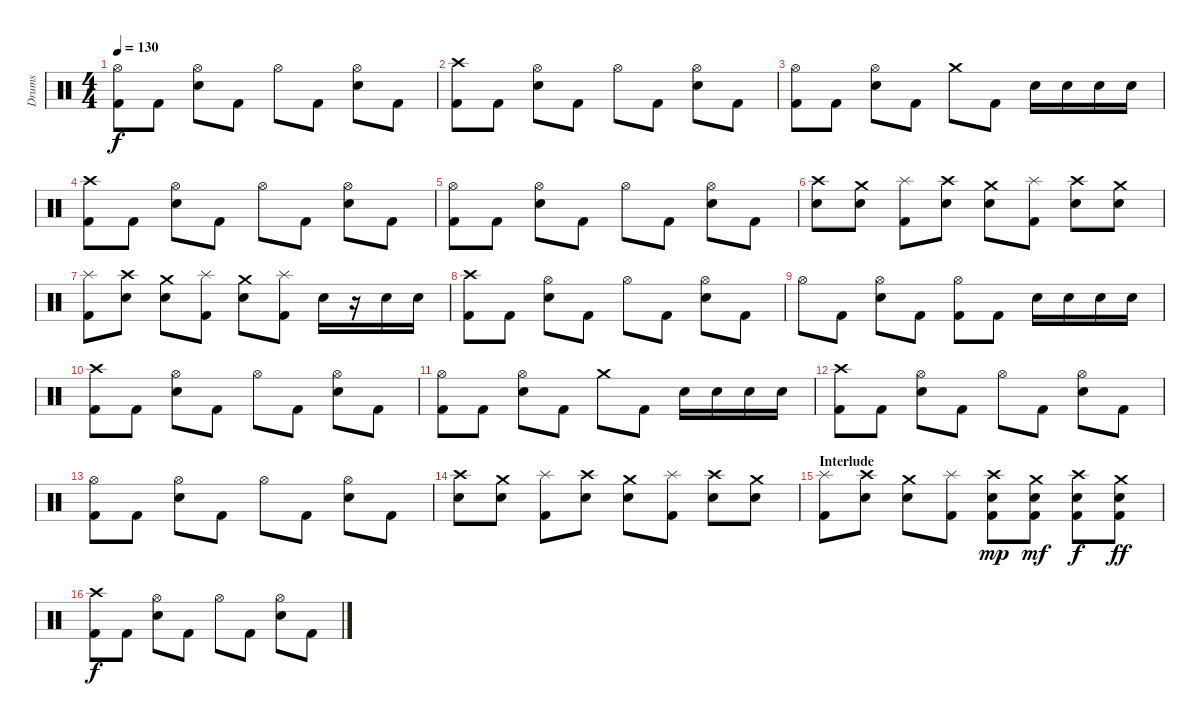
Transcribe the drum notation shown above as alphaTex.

\track ("Drums" "Drums") {instrument percussion}
\staff {score}
\articulation defaults
\ts (4 4)
\tempo 130
\clef neutral
\ks c
("Hi-Hat (open)" "Kick (hit) 2").8{dy f} "Kick (hit) 2".8 ("Hi-Hat (open)" "Electric Snare (hit)").8 "Kick (hit) 2".8 "Hi-Hat (open)".8 "Kick (hit) 2".8 ("Hi-Hat (open)" "Electric Snare (hit)").8 "Kick (hit) 2".8 |
("Crash high (hit)" "Kick (hit) 2").8 "Kick (hit) 2".8 ("Hi-Hat (open)" "Electric Snare (hit)").8 "Kick (hit) 2".8 "Hi-Hat (open)".8 "Kick (hit) 2".8 ("Hi-Hat (open)" "Electric Snare (hit)").8 "Kick (hit) 2".8 |
("Hi-Hat (open)" "Kick (hit) 2").8 "Kick (hit) 2".8 ("Hi-Hat (open)" "Electric Snare (hit)").8 "Kick (hit) 2".8 "Crash medium (hit)".8 "Kick (hit) 2".8 "Electric Snare (hit)".16 "Electric Snare (hit)".16 "Electric Snare (hit)".16 "Electric Snare (hit)".16 |
("Crash high (hit)" "Kick (hit) 2").8 "Kick (hit) 2".8 ("Hi-Hat (open)" "Electric Snare (hit)").8 "Kick (hit) 2".8 "Hi-Hat (open)".8 "Kick (hit) 2".8 ("Hi-Hat (open)" "Electric Snare (hit)").8 "Kick (hit) 2".8 |
("Hi-Hat (open)" "Kick (hit) 2").8 "Kick (hit) 2".8 ("Hi-Hat (open)" "Electric Snare (hit)").8 "Kick (hit) 2".8 "Hi-Hat (open)".8 "Kick (hit) 2".8 ("Hi-Hat (open)" "Electric Snare (hit)").8 "Kick (hit) 2".8 |
("Crash high (hit)" "Electric Snare (hit)").8 ("Crash medium (hit)" "Electric Snare (hit)").8 ("Splash (hit)" "Kick (hit) 2").8 ("Crash high (hit)" "Electric Snare (hit)").8 ("Crash medium (hit)" "Electric Snare (hit)").8 ("Splash (hit)" "Kick (hit) 2").8 ("Crash high (hit)" "Electric Snare (hit)").8 ("Crash medium (hit)" "Electric Snare (hit)").8 |
("Splash (hit)" "Kick (hit) 2").8 ("Crash high (hit)" "Electric Snare (hit)").8 ("Crash medium (hit)" "Electric Snare (hit)").8 ("Splash (hit)" "Kick (hit) 2").8 ("Crash medium (hit)" "Electric Snare (hit)").8 ("Splash (hit)" "Kick (hit) 2").8 "Electric Snare (hit)".16 r.16 "Electric Snare (hit)".16 "Electric Snare (hit)".16 |
("Crash high (hit)" "Kick (hit) 2").8 "Kick (hit) 2".8 ("Hi-Hat (open)" "Electric Snare (hit)").8 "Kick (hit) 2".8 "Hi-Hat (open)".8 "Kick (hit) 2".8 ("Hi-Hat (open)" "Electric Snare (hit)").8 "Kick (hit) 2".8 |
"Hi-Hat (open)".8 "Kick (hit) 2".8 ("Hi-Hat (open)" "Electric Snare (hit)").8 "Kick (hit) 2".8 ("Hi-Hat (open)" "Kick (hit) 2").8 "Kick (hit) 2".8 "Electric Snare (hit)".16 "Electric Snare (hit)".16 "Electric Snare (hit)".16 "Electric Snare (hit)".16 |
("Crash high (hit)" "Kick (hit) 2").8 "Kick (hit) 2".8 ("Hi-Hat (open)" "Electric Snare (hit)").8 "Kick (hit) 2".8 "Hi-Hat (open)".8 "Kick (hit) 2".8 ("Hi-Hat (open)" "Electric Snare (hit)").8 "Kick (hit) 2".8 |
("Hi-Hat (open)" "Kick (hit) 2").8 "Kick (hit) 2".8 ("Hi-Hat (open)" "Electric Snare (hit)").8 "Kick (hit) 2".8 "Crash medium (hit)".8 "Kick (hit) 2".8 "Electric Snare (hit)".16 "Electric Snare (hit)".16 "Electric Snare (hit)".16 "Electric Snare (hit)".16 |
("Crash high (hit)" "Kick (hit) 2").8 "Kick (hit) 2".8 ("Hi-Hat (open)" "Electric Snare (hit)").8 "Kick (hit) 2".8 "Hi-Hat (open)".8 "Kick (hit) 2".8 ("Hi-Hat (open)" "Electric Snare (hit)").8 "Kick (hit) 2".8 |
("Hi-Hat (open)" "Kick (hit) 2").8 "Kick (hit) 2".8 ("Hi-Hat (open)" "Electric Snare (hit)").8 "Kick (hit) 2".8 "Hi-Hat (open)".8 "Kick (hit) 2".8 ("Hi-Hat (open)" "Electric Snare (hit)").8 "Kick (hit) 2".8 |
("Crash high (hit)" "Electric Snare (hit)").8 ("Crash medium (hit)" "Electric Snare (hit)").8 ("Splash (hit)" "Kick (hit) 2").8 ("Crash high (hit)" "Electric Snare (hit)").8 ("Crash medium (hit)" "Electric Snare (hit)").8 ("Splash (hit)" "Kick (hit) 2").8 ("Crash high (hit)" "Electric Snare (hit)").8 ("Crash medium (hit)" "Electric Snare (hit)").8 |
\section ("" "Interlude")
("Splash (hit)" "Kick (hit) 2").8 ("Crash high (hit)" "Electric Snare (hit)").8 ("Crash medium (hit)" "Electric Snare (hit)").8 ("Splash (hit)" "Kick (hit) 2").8 ("Crash high (hit)" "Electric Snare (hit)" "Kick (hit) 2").8{dy mp} ("Crash medium (hit)" "Electric Snare (hit)" "Kick (hit) 2").8{dy mf} ("Crash high (hit)" "Electric Snare (hit)" "Kick (hit) 2").8{dy f} ("Crash medium (hit)" "Electric Snare (hit)" "Kick (hit) 2").8{dy ff} |
("Crash high (hit)" "Kick (hit) 2").8{dy f} "Kick (hit) 2".8 ("Hi-Hat (open)" "Electric Snare (hit)").8 "Kick (hit) 2".8 "Hi-Hat (open)".8 "Kick (hit) 2".8 ("Hi-Hat (open)" "Electric Snare (hit)").8 "Kick (hit) 2".8
